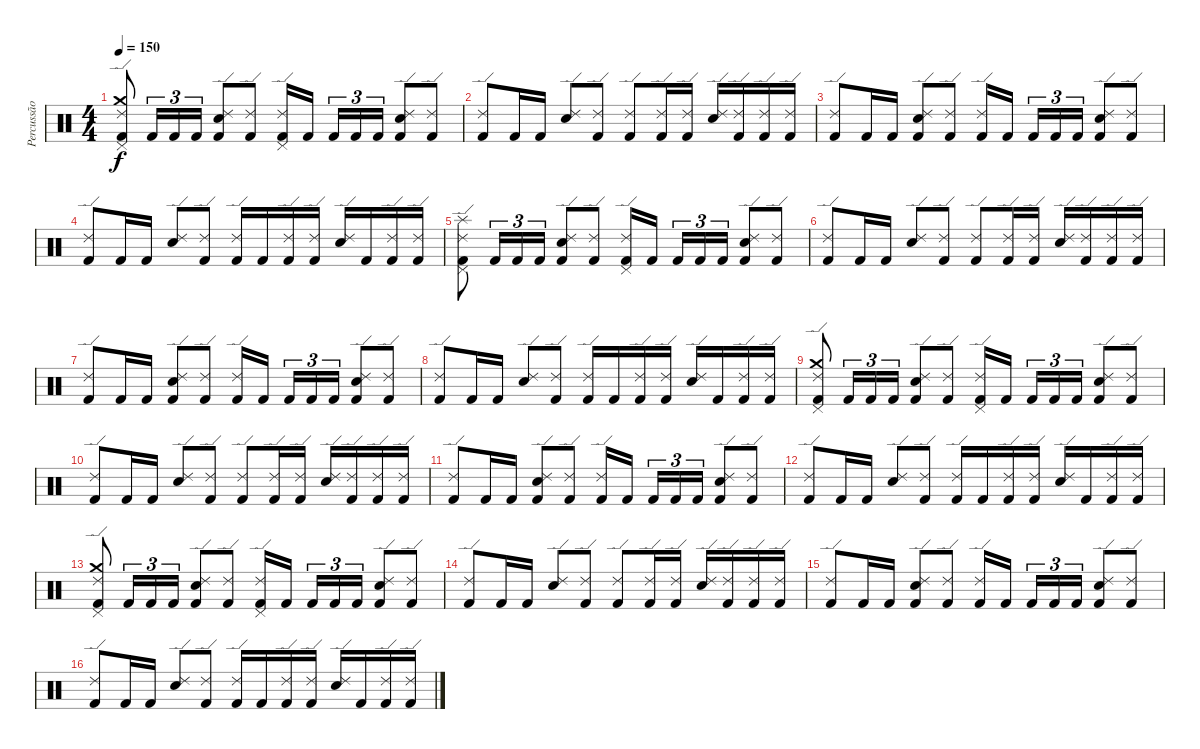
\track ("Percussão" "Percussão") {instrument percussion}
\staff {score}
\articulation defaults
\ts (4 4)
\tempo 150
\clef neutral
\ks c
("Kick (hit) 2" "Pedal Hi-Hat (hit)" "Crash medium (hit)" "Ride (edge) 2").8{dy f} "Kick (hit) 2".16{tu (3 2)} "Kick (hit) 2".16{tu (3 2)} "Kick (hit) 2".16{tu (3 2)} ("Kick (hit) 2" "Snare (hit) 2" "Ride (edge) 2").8 ("Kick (hit) 2" "Ride (edge) 2").8 ("Kick (hit) 2" "Pedal Hi-Hat (hit)" "Ride (edge) 2").16 "Kick (hit) 2".16 "Kick (hit) 2".16{tu (3 2)} "Kick (hit) 2".16{tu (3 2)} "Kick (hit) 2".16{tu (3 2)} ("Kick (hit) 2" "Snare (hit) 2" "Ride (edge) 2").8 ("Kick (hit) 2" "Ride (edge) 2").8 |
("Kick (hit) 2" "Ride (edge) 2").8 "Kick (hit) 2".16 "Kick (hit) 2".16 ("Snare (hit) 2" "Ride (edge) 2").8 ("Kick (hit) 2" "Ride (edge) 2").8 ("Kick (hit) 2" "Ride (edge) 2").8 ("Kick (hit) 2" "Ride (edge) 2").16 ("Kick (hit) 2" "Ride (edge) 2").16 ("Snare (hit) 2" "Ride (edge) 2").16 ("Kick (hit) 2" "Ride (edge) 2").16 ("Kick (hit) 2" "Ride (edge) 2").16 ("Kick (hit) 2" "Ride (edge) 2").16 |
("Kick (hit) 2" "Ride (edge) 2").8 "Kick (hit) 2".16 "Kick (hit) 2".16 ("Kick (hit) 2" "Snare (hit) 2" "Ride (edge) 2").8 ("Kick (hit) 2" "Ride (edge) 2").8 ("Kick (hit) 2" "Ride (edge) 2").16 "Kick (hit) 2".16 "Kick (hit) 2".16{tu (3 2)} "Kick (hit) 2".16{tu (3 2)} "Kick (hit) 2".16{tu (3 2)} ("Kick (hit) 2" "Snare (hit) 2" "Ride (edge) 2").8 ("Kick (hit) 2" "Ride (edge) 2").8 |
("Kick (hit) 2" "Ride (edge) 2").8 "Kick (hit) 2".16 "Kick (hit) 2".16 ("Snare (hit) 2" "Ride (edge) 2").8 ("Kick (hit) 2" "Ride (edge) 2").8 ("Kick (hit) 2" "Ride (edge) 2").16 "Kick (hit) 2".16 ("Kick (hit) 2" "Ride (edge) 2").16 ("Kick (hit) 2" "Ride (edge) 2").16 ("Snare (hit) 2" "Ride (edge) 2").16 "Kick (hit) 2".16 ("Kick (hit) 2" "Ride (edge) 2").16 ("Kick (hit) 2" "Ride (edge) 2").16 |
("Kick (hit) 2" "Pedal Hi-Hat (hit)" "Splash (hit)" "Ride (edge) 2").8 "Kick (hit) 2".16{tu (3 2)} "Kick (hit) 2".16{tu (3 2)} "Kick (hit) 2".16{tu (3 2)} ("Kick (hit) 2" "Snare (hit) 2" "Ride (edge) 2").8 ("Kick (hit) 2" "Ride (edge) 2").8 ("Kick (hit) 2" "Pedal Hi-Hat (hit)" "Ride (edge) 2").16 "Kick (hit) 2".16 "Kick (hit) 2".16{tu (3 2)} "Kick (hit) 2".16{tu (3 2)} "Kick (hit) 2".16{tu (3 2)} ("Kick (hit) 2" "Snare (hit) 2" "Ride (edge) 2").8 ("Kick (hit) 2" "Ride (edge) 2").8 |
("Kick (hit) 2" "Ride (edge) 2").8 "Kick (hit) 2".16 "Kick (hit) 2".16 ("Snare (hit) 2" "Ride (edge) 2").8 ("Kick (hit) 2" "Ride (edge) 2").8 ("Kick (hit) 2" "Ride (edge) 2").8 ("Kick (hit) 2" "Ride (edge) 2").16 ("Kick (hit) 2" "Ride (edge) 2").16 ("Snare (hit) 2" "Ride (edge) 2").16 ("Kick (hit) 2" "Ride (edge) 2").16 ("Kick (hit) 2" "Ride (edge) 2").16 ("Kick (hit) 2" "Ride (edge) 2").16 |
("Kick (hit) 2" "Ride (edge) 2").8 "Kick (hit) 2".16 "Kick (hit) 2".16 ("Kick (hit) 2" "Snare (hit) 2" "Ride (edge) 2").8 ("Kick (hit) 2" "Ride (edge) 2").8 ("Kick (hit) 2" "Ride (edge) 2").16 "Kick (hit) 2".16 "Kick (hit) 2".16{tu (3 2)} "Kick (hit) 2".16{tu (3 2)} "Kick (hit) 2".16{tu (3 2)} ("Kick (hit) 2" "Snare (hit) 2" "Ride (edge) 2").8 ("Kick (hit) 2" "Ride (edge) 2").8 |
("Kick (hit) 2" "Ride (edge) 2").8 "Kick (hit) 2".16 "Kick (hit) 2".16 ("Snare (hit) 2" "Ride (edge) 2").8 ("Kick (hit) 2" "Ride (edge) 2").8 ("Kick (hit) 2" "Ride (edge) 2").16 "Kick (hit) 2".16 ("Kick (hit) 2" "Ride (edge) 2").16 ("Kick (hit) 2" "Ride (edge) 2").16 ("Snare (hit) 2" "Ride (edge) 2").16 "Kick (hit) 2".16 ("Kick (hit) 2" "Ride (edge) 2").16 ("Kick (hit) 2" "Ride (edge) 2").16 |
("Kick (hit) 2" "Pedal Hi-Hat (hit)" "Crash medium (hit)" "Ride (edge) 2").8 "Kick (hit) 2".16{tu (3 2)} "Kick (hit) 2".16{tu (3 2)} "Kick (hit) 2".16{tu (3 2)} ("Kick (hit) 2" "Snare (hit) 2" "Ride (edge) 2").8 ("Kick (hit) 2" "Ride (edge) 2").8 ("Kick (hit) 2" "Pedal Hi-Hat (hit)" "Ride (edge) 2").16 "Kick (hit) 2".16 "Kick (hit) 2".16{tu (3 2)} "Kick (hit) 2".16{tu (3 2)} "Kick (hit) 2".16{tu (3 2)} ("Kick (hit) 2" "Snare (hit) 2" "Ride (edge) 2").8 ("Kick (hit) 2" "Ride (edge) 2").8 |
("Kick (hit) 2" "Ride (edge) 2").8 "Kick (hit) 2".16 "Kick (hit) 2".16 ("Snare (hit) 2" "Ride (edge) 2").8 ("Kick (hit) 2" "Ride (edge) 2").8 ("Kick (hit) 2" "Ride (edge) 2").8 ("Kick (hit) 2" "Ride (edge) 2").16 ("Kick (hit) 2" "Ride (edge) 2").16 ("Snare (hit) 2" "Ride (edge) 2").16 ("Kick (hit) 2" "Ride (edge) 2").16 ("Kick (hit) 2" "Ride (edge) 2").16 ("Kick (hit) 2" "Ride (edge) 2").16 |
("Kick (hit) 2" "Ride (edge) 2").8 "Kick (hit) 2".16 "Kick (hit) 2".16 ("Kick (hit) 2" "Snare (hit) 2" "Ride (edge) 2").8 ("Kick (hit) 2" "Ride (edge) 2").8 ("Kick (hit) 2" "Ride (edge) 2").16 "Kick (hit) 2".16 "Kick (hit) 2".16{tu (3 2)} "Kick (hit) 2".16{tu (3 2)} "Kick (hit) 2".16{tu (3 2)} ("Kick (hit) 2" "Snare (hit) 2" "Ride (edge) 2").8 ("Kick (hit) 2" "Ride (edge) 2").8 |
("Kick (hit) 2" "Ride (edge) 2").8 "Kick (hit) 2".16 "Kick (hit) 2".16 ("Snare (hit) 2" "Ride (edge) 2").8 ("Kick (hit) 2" "Ride (edge) 2").8 ("Kick (hit) 2" "Ride (edge) 2").16 "Kick (hit) 2".16 ("Kick (hit) 2" "Ride (edge) 2").16 ("Kick (hit) 2" "Ride (edge) 2").16 ("Snare (hit) 2" "Ride (edge) 2").16 "Kick (hit) 2".16 ("Kick (hit) 2" "Ride (edge) 2").16 ("Kick (hit) 2" "Ride (edge) 2").16 |
("Kick (hit) 2" "Pedal Hi-Hat (hit)" "Crash medium (hit)" "Ride (edge) 2").8 "Kick (hit) 2".16{tu (3 2)} "Kick (hit) 2".16{tu (3 2)} "Kick (hit) 2".16{tu (3 2)} ("Kick (hit) 2" "Snare (hit) 2" "Ride (edge) 2").8 ("Kick (hit) 2" "Ride (edge) 2").8 ("Kick (hit) 2" "Pedal Hi-Hat (hit)" "Ride (edge) 2").16 "Kick (hit) 2".16 "Kick (hit) 2".16{tu (3 2)} "Kick (hit) 2".16{tu (3 2)} "Kick (hit) 2".16{tu (3 2)} ("Kick (hit) 2" "Snare (hit) 2" "Ride (edge) 2").8 ("Kick (hit) 2" "Ride (edge) 2").8 |
("Kick (hit) 2" "Ride (edge) 2").8 "Kick (hit) 2".16 "Kick (hit) 2".16 ("Snare (hit) 2" "Ride (edge) 2").8 ("Kick (hit) 2" "Ride (edge) 2").8 ("Kick (hit) 2" "Ride (edge) 2").8 ("Kick (hit) 2" "Ride (edge) 2").16 ("Kick (hit) 2" "Ride (edge) 2").16 ("Snare (hit) 2" "Ride (edge) 2").16 ("Kick (hit) 2" "Ride (edge) 2").16 ("Kick (hit) 2" "Ride (edge) 2").16 ("Kick (hit) 2" "Ride (edge) 2").16 |
("Kick (hit) 2" "Ride (edge) 2").8 "Kick (hit) 2".16 "Kick (hit) 2".16 ("Kick (hit) 2" "Snare (hit) 2" "Ride (edge) 2").8 ("Kick (hit) 2" "Ride (edge) 2").8 ("Kick (hit) 2" "Ride (edge) 2").16 "Kick (hit) 2".16 "Kick (hit) 2".16{tu (3 2)} "Kick (hit) 2".16{tu (3 2)} "Kick (hit) 2".16{tu (3 2)} ("Kick (hit) 2" "Snare (hit) 2" "Ride (edge) 2").8 ("Kick (hit) 2" "Ride (edge) 2").8 |
("Kick (hit) 2" "Ride (edge) 2").8 "Kick (hit) 2".16 "Kick (hit) 2".16 ("Snare (hit) 2" "Ride (edge) 2").8 ("Kick (hit) 2" "Ride (edge) 2").8 ("Kick (hit) 2" "Ride (edge) 2").16 "Kick (hit) 2".16 ("Kick (hit) 2" "Ride (edge) 2").16 ("Kick (hit) 2" "Ride (edge) 2").16 ("Snare (hit) 2" "Ride (edge) 2").16 "Kick (hit) 2".16 ("Kick (hit) 2" "Ride (edge) 2").16 ("Kick (hit) 2" "Ride (edge) 2").16
